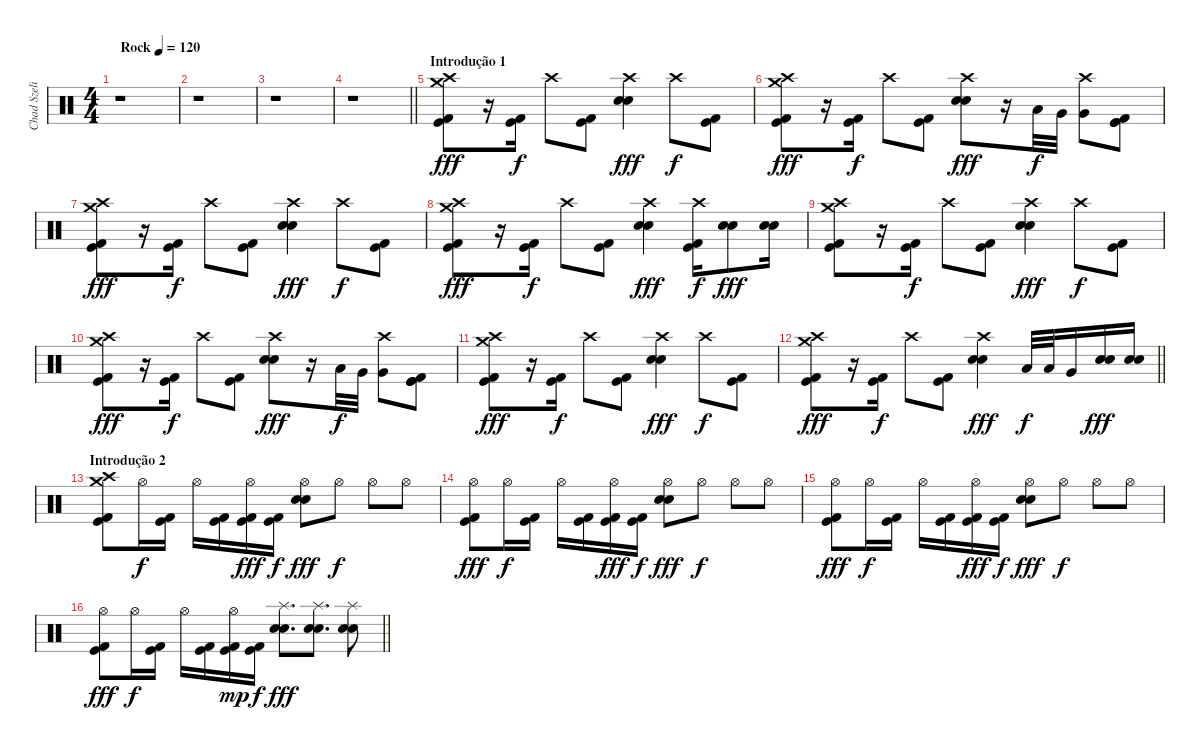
\track ("Chad Szeliga" "Chad Szeli") {instrument percussion}
\staff {score}
\articulation defaults
\ts (4 4)
\tempo (120 "Rock")
\clef neutral
\ks c
r.1{dy fff} |
r.1 |
r.1 |
\barLineRight lightlight
r.1 |
\section ("" "Introdução 1")
("Crash high (hit)" "Kick (hit) 2" "Kick (hit)" "Crash medium (hit)").8 r.16 ("Kick (hit) 2" "Kick (hit)").16{dy f beam Down} "Crash high (hit)".8 ("Kick (hit) 2" "Kick (hit)").8 ("Crash high (hit)" "Snare (hit) 2" "Snare (hit) 2").4{dy fff} "Crash high (hit)".8{dy f} ("Kick (hit) 2" "Kick (hit)").8 |
("Crash high (hit)" "Kick (hit) 2" "Kick (hit)" "Crash medium (hit)").8{dy fff} r.16 ("Kick (hit) 2" "Kick (hit)").16{dy f beam Down} "Crash high (hit)".8 ("Kick (hit) 2" "Kick (hit)").8 ("Crash high (hit)" "Snare (hit) 2" "Snare (hit) 2").8{dy fff} r.16 "Low Tom (hit)".32{dy f} "Very Low Tom (hit)".32 ("Crash high (hit)" "Very Low Tom (hit)").8 ("Kick (hit) 2" "Kick (hit)" "Kick (hit)").8 |
("Crash high (hit)" "Kick (hit) 2" "Kick (hit)" "Crash medium (hit)").8{dy fff} r.16 ("Kick (hit) 2" "Kick (hit)").16{dy f beam Down} "Crash high (hit)".8 ("Kick (hit) 2" "Kick (hit)").8 ("Crash high (hit)" "Snare (hit) 2" "Snare (hit) 2").4{dy fff} "Crash high (hit)".8{dy f} ("Kick (hit) 2" "Kick (hit)").8 |
("Crash high (hit)" "Kick (hit) 2" "Kick (hit)" "Crash medium (hit)").8{dy fff} r.16 ("Kick (hit) 2" "Kick (hit)").16{dy f beam Down} "Crash high (hit)".8 ("Kick (hit) 2" "Kick (hit)").8 ("Crash high (hit)" "Snare (hit) 2" "Snare (hit) 2").4{dy fff} ("Crash high (hit)" "Kick (hit) 2" "Kick (hit)").16{dy f} ("Snare (hit) 2" "Snare (hit) 2").8{dy fff} ("Snare (hit) 2" "Snare (hit) 2").16 |
("Crash high (hit)" "Kick (hit) 2" "Kick (hit)" "Crash medium (hit)").8 r.16 ("Kick (hit) 2" "Kick (hit)").16{dy f beam Down} "Crash high (hit)".8 ("Kick (hit) 2" "Kick (hit)").8 ("Crash high (hit)" "Snare (hit) 2" "Snare (hit) 2").4{dy fff} "Crash high (hit)".8{dy f} ("Kick (hit) 2" "Kick (hit)").8 |
("Crash high (hit)" "Kick (hit) 2" "Kick (hit)" "Crash medium (hit)").8{dy fff} r.16 ("Kick (hit) 2" "Kick (hit)").16{dy f beam Down} "Crash high (hit)".8 ("Kick (hit) 2" "Kick (hit)").8 ("Crash high (hit)" "Snare (hit) 2" "Snare (hit) 2").8{dy fff} r.16 "Low Tom (hit)".32{dy f} "Very Low Tom (hit)".32 ("Crash high (hit)" "Very Low Tom (hit)").8 ("Kick (hit) 2" "Kick (hit)" "Kick (hit)").8 |
("Crash high (hit)" "Kick (hit) 2" "Kick (hit)" "Crash medium (hit)").8{dy fff} r.16 ("Kick (hit) 2" "Kick (hit)").16{dy f beam Down} "Crash high (hit)".8 ("Kick (hit) 2" "Kick (hit)").8 ("Crash high (hit)" "Snare (hit) 2" "Snare (hit) 2").4{dy fff} "Crash high (hit)".8{dy f} ("Kick (hit) 2" "Kick (hit)").8 |
\barLineRight lightlight
("Crash high (hit)" "Kick (hit) 2" "Kick (hit)" "Crash medium (hit)").8{dy fff} r.16 ("Kick (hit) 2" "Kick (hit)").16{dy f beam Down} "Crash high (hit)".8 ("Kick (hit) 2" "Kick (hit)").8 ("Crash high (hit)" "Snare (hit) 2" "Snare (hit) 2").4{dy fff} "Low Tom (hit)".32{dy f} "Low Tom (hit)".32 "Very Low Tom (hit)".16 ("Snare (hit) 2" "Snare (hit) 2").16{dy fff} ("Snare (hit) 2" "Snare (hit) 2").16 |
\section ("" "Introdução 2")
("Crash high (hit)" "Kick (hit) 2" "Kick (hit)" "Crash medium (hit)").8 "Hi-Hat (open)".16{dy f} ("Kick (hit) 2" "Kick (hit)").16 "Hi-Hat (open)".16 ("Kick (hit) 2" "Kick (hit)").16 ("Kick (hit) 2" "Kick (hit)" "Hi-Hat (open)").16{dy fff} ("Kick (hit) 2" "Kick (hit)").16{dy f} ("Snare (hit) 2" "Snare (hit) 2" "Hi-Hat (open)").8{dy fff} "Hi-Hat (open)".8{dy f} "Hi-Hat (open)".8 "Hi-Hat (open)".8 |
("Kick (hit) 2" "Kick (hit)" "Hi-Hat (open)").8{dy fff} "Hi-Hat (open)".16{dy f} ("Kick (hit) 2" "Kick (hit)").16 "Hi-Hat (open)".16 ("Kick (hit) 2" "Kick (hit)").16 ("Kick (hit) 2" "Kick (hit)" "Hi-Hat (open)").16{dy fff} ("Kick (hit) 2" "Kick (hit)").16{dy f} ("Snare (hit) 2" "Snare (hit) 2" "Hi-Hat (open)").8{dy fff} "Hi-Hat (open)".8{dy f} "Hi-Hat (open)".8 "Hi-Hat (open)".8 |
("Kick (hit) 2" "Kick (hit)" "Hi-Hat (open)").8{dy fff} "Hi-Hat (open)".16{dy f} ("Kick (hit) 2" "Kick (hit)").16 "Hi-Hat (open)".16 ("Kick (hit) 2" "Kick (hit)").16 ("Kick (hit) 2" "Kick (hit)" "Hi-Hat (open)").16{dy fff} ("Kick (hit) 2" "Kick (hit)").16{dy f} ("Snare (hit) 2" "Snare (hit) 2" "Hi-Hat (open)").8{dy fff} "Hi-Hat (open)".8{dy f} "Hi-Hat (open)".8 "Hi-Hat (open)".8 |
\barLineRight lightlight
("Kick (hit) 2" "Kick (hit)" "Hi-Hat (open)").8{dy fff} "Hi-Hat (open)".16{dy f} ("Kick (hit) 2" "Kick (hit)").16 "Hi-Hat (open)".16 ("Kick (hit) 2" "Kick (hit)").16 ("Kick (hit) 2" "Kick (hit)" "Hi-Hat (open)").16{dy mp} ("Kick (hit) 2" "Kick (hit)").16{dy f} ("Splash (hit)" "Snare (hit) 2" "Snare (hit) 2").8{d dy fff} ("Splash (hit)" "Snare (hit) 2" "Snare (hit) 2").8{d} ("Splash (hit)" "Snare (hit) 2" "Snare (hit) 2").8
